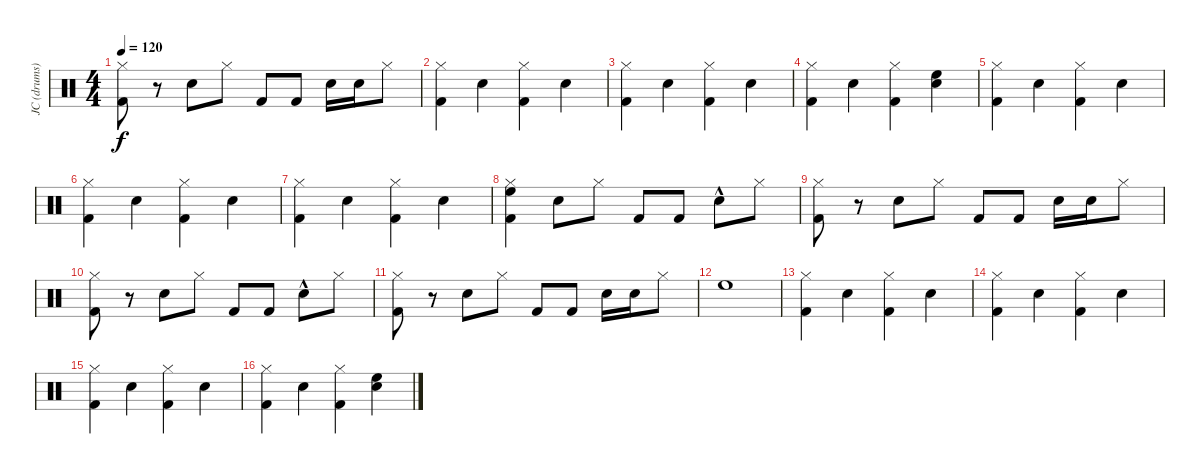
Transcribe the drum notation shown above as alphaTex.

\track ("JC (drums)" "JC (drums)") {instrument percussion}
\staff {score}
\articulation defaults
\ts (4 4)
\tempo 120
\clef neutral
\ks c
("Hi-Hat (closed)" "Kick (hit) 2").8{dy f} r.8 "Electric Snare (hit)".8 "Hi-Hat (closed)".8 "Kick (hit) 2".8 "Kick (hit) 2".8 "Electric Snare (hit)".16 "Electric Snare (hit)".16 "Hi-Hat (closed)".8 |
("Hi-Hat (closed)" "Kick (hit) 2").4 "Electric Snare (hit)".4 ("Hi-Hat (closed)" "Kick (hit) 2").4 "Snare (hit) 2".4 |
("Hi-Hat (closed)" "Kick (hit) 2").4 "Electric Snare (hit)".4 ("Hi-Hat (closed)" "Kick (hit) 2").4 "Snare (hit) 2".4 |
("Hi-Hat (closed)" "Kick (hit) 2").4 "Electric Snare (hit)".4 ("Hi-Hat (closed)" "Kick (hit) 2").4 ("High Floor Tom (hit)" "Snare (hit) 2").4 |
("Hi-Hat (closed)" "Kick (hit) 2").4 "Electric Snare (hit)".4 ("Hi-Hat (closed)" "Kick (hit) 2").4 "Snare (hit) 2".4 |
("Hi-Hat (closed)" "Kick (hit) 2").4 "Electric Snare (hit)".4 ("Hi-Hat (closed)" "Kick (hit) 2").4 "Snare (hit) 2".4 |
("Hi-Hat (closed)" "Kick (hit) 2").4 "Electric Snare (hit)".4 ("Hi-Hat (closed)" "Kick (hit) 2").4 "Snare (hit) 2".4 |
("High Floor Tom (hit)" "Hi-Hat (closed)" "Kick (hit) 2").4 "Electric Snare (hit)".8 "Hi-Hat (closed)".8 "Kick (hit) 2".8 "Kick (hit) 2".8 "Electric Snare (hit)"{hac}.8 "Hi-Hat (closed)".8 |
("Hi-Hat (closed)" "Kick (hit) 2").8 r.8 "Electric Snare (hit)".8 "Hi-Hat (closed)".8 "Kick (hit) 2".8 "Kick (hit) 2".8 "Electric Snare (hit)".16 "Electric Snare (hit)".16 "Hi-Hat (closed)".8 |
("Hi-Hat (closed)" "Kick (hit) 2").8 r.8 "Electric Snare (hit)".8 "Hi-Hat (closed)".8 "Kick (hit) 2".8 "Kick (hit) 2".8 "Electric Snare (hit)"{hac}.8 "Hi-Hat (closed)".8 |
("Hi-Hat (closed)" "Kick (hit) 2").8 r.8 "Electric Snare (hit)".8 "Hi-Hat (closed)".8 "Kick (hit) 2".8 "Kick (hit) 2".8 "Electric Snare (hit)".16 "Electric Snare (hit)".16 "Hi-Hat (closed)".8 |
"High Floor Tom (hit)".1 |
("Hi-Hat (closed)" "Kick (hit) 2").4 "Electric Snare (hit)".4 ("Hi-Hat (closed)" "Kick (hit) 2").4 "Snare (hit) 2".4 |
("Hi-Hat (closed)" "Kick (hit) 2").4 "Electric Snare (hit)".4 ("Hi-Hat (closed)" "Kick (hit) 2").4 "Snare (hit) 2".4 |
("Hi-Hat (closed)" "Kick (hit) 2").4 "Electric Snare (hit)".4 ("Hi-Hat (closed)" "Kick (hit) 2").4 "Snare (hit) 2".4 |
("Hi-Hat (closed)" "Kick (hit) 2").4 "Electric Snare (hit)".4 ("Hi-Hat (closed)" "Kick (hit) 2").4 ("High Floor Tom (hit)" "Snare (hit) 2").4
